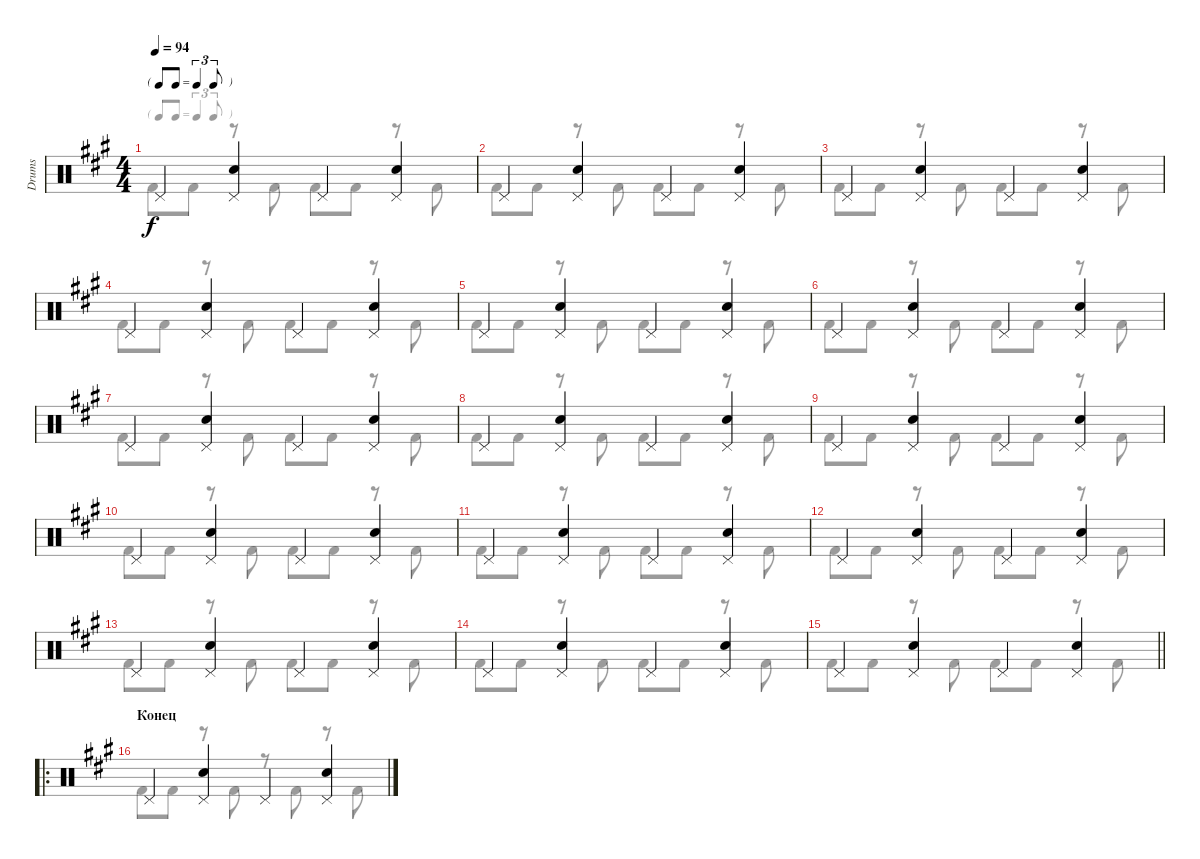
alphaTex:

\track ("Drums" "Drums") {instrument percussion}
\staff {score}
\articulation defaults
\voice
\ts (4 4)
\tf triplet8th
\tempo 94
\clef neutral
\ks f#minor "Pedal Hi-Hat (hit)".4{dy f}
("Pedal Hi-Hat (hit)" "Snare (hit) 2").4 "Pedal Hi-Hat (hit)".4 ("Pedal Hi-Hat (hit)" "Snare (hit) 2").4 |
"Pedal Hi-Hat (hit)".4 ("Pedal Hi-Hat (hit)" "Snare (hit) 2").4 "Pedal Hi-Hat (hit)".4 ("Pedal Hi-Hat (hit)" "Snare (hit) 2").4 |
"Pedal Hi-Hat (hit)".4 ("Pedal Hi-Hat (hit)" "Snare (hit) 2").4 "Pedal Hi-Hat (hit)".4 ("Pedal Hi-Hat (hit)" "Snare (hit) 2").4 |
"Pedal Hi-Hat (hit)".4 ("Pedal Hi-Hat (hit)" "Snare (hit) 2").4 "Pedal Hi-Hat (hit)".4 ("Pedal Hi-Hat (hit)" "Snare (hit) 2").4 |
"Pedal Hi-Hat (hit)".4 ("Pedal Hi-Hat (hit)" "Snare (hit) 2").4 "Pedal Hi-Hat (hit)".4 ("Pedal Hi-Hat (hit)" "Snare (hit) 2").4 |
"Pedal Hi-Hat (hit)".4 ("Pedal Hi-Hat (hit)" "Snare (hit) 2").4 "Pedal Hi-Hat (hit)".4 ("Pedal Hi-Hat (hit)" "Snare (hit) 2").4 |
"Pedal Hi-Hat (hit)".4 ("Pedal Hi-Hat (hit)" "Snare (hit) 2").4 "Pedal Hi-Hat (hit)".4 ("Pedal Hi-Hat (hit)" "Snare (hit) 2").4 |
"Pedal Hi-Hat (hit)".4 ("Pedal Hi-Hat (hit)" "Snare (hit) 2").4 "Pedal Hi-Hat (hit)".4 ("Pedal Hi-Hat (hit)" "Snare (hit) 2").4 |
"Pedal Hi-Hat (hit)".4 ("Pedal Hi-Hat (hit)" "Snare (hit) 2").4 "Pedal Hi-Hat (hit)".4 ("Pedal Hi-Hat (hit)" "Snare (hit) 2").4 |
"Pedal Hi-Hat (hit)".4 ("Pedal Hi-Hat (hit)" "Snare (hit) 2").4 "Pedal Hi-Hat (hit)".4 ("Pedal Hi-Hat (hit)" "Snare (hit) 2").4 |
"Pedal Hi-Hat (hit)".4 ("Pedal Hi-Hat (hit)" "Snare (hit) 2").4 "Pedal Hi-Hat (hit)".4 ("Pedal Hi-Hat (hit)" "Snare (hit) 2").4 |
"Pedal Hi-Hat (hit)".4 ("Pedal Hi-Hat (hit)" "Snare (hit) 2").4 "Pedal Hi-Hat (hit)".4 ("Pedal Hi-Hat (hit)" "Snare (hit) 2").4 |
"Pedal Hi-Hat (hit)".4 ("Pedal Hi-Hat (hit)" "Snare (hit) 2").4 "Pedal Hi-Hat (hit)".4 ("Pedal Hi-Hat (hit)" "Snare (hit) 2").4 |
"Pedal Hi-Hat (hit)".4 ("Pedal Hi-Hat (hit)" "Snare (hit) 2").4 "Pedal Hi-Hat (hit)".4 ("Pedal Hi-Hat (hit)" "Snare (hit) 2").4 |
\barLineRight lightlight "Pedal Hi-Hat (hit)".4
("Pedal Hi-Hat (hit)" "Snare (hit) 2").4 "Pedal Hi-Hat (hit)".4 ("Pedal Hi-Hat (hit)" "Snare (hit) 2").4 |
\ro
\section ("" "Конец")
"Pedal Hi-Hat (hit)".4 ("Pedal Hi-Hat (hit)" "Snare (hit) 2").4 "Pedal Hi-Hat (hit)".4 ("Pedal Hi-Hat (hit)" "Snare (hit) 2").4
\voice
\clef neutral
\ottava regular
\simile none
\ks f#minor "Kick (hit) 2".8{dy f} "Kick (hit) 2".8
r.8 "Kick (hit) 2".8 "Kick (hit) 2".8 "Kick (hit) 2".8 r.8 "Kick (hit) 2".8 |
"Kick (hit) 2".8 "Kick (hit) 2".8 r.8 "Kick (hit) 2".8 "Kick (hit) 2".8 "Kick (hit) 2".8 r.8 "Kick (hit) 2".8 |
"Kick (hit) 2".8 "Kick (hit) 2".8 r.8 "Kick (hit) 2".8 "Kick (hit) 2".8 "Kick (hit) 2".8 r.8 "Kick (hit) 2".8 |
"Kick (hit) 2".8 "Kick (hit) 2".8 r.8 "Kick (hit) 2".8 "Kick (hit) 2".8 "Kick (hit) 2".8 r.8 "Kick (hit) 2".8 |
"Kick (hit) 2".8 "Kick (hit) 2".8 r.8 "Kick (hit) 2".8 "Kick (hit) 2".8 "Kick (hit) 2".8 r.8 "Kick (hit) 2".8 |
"Kick (hit) 2".8 "Kick (hit) 2".8 r.8 "Kick (hit) 2".8 "Kick (hit) 2".8 "Kick (hit) 2".8 r.8 "Kick (hit) 2".8 |
"Kick (hit) 2".8 "Kick (hit) 2".8 r.8 "Kick (hit) 2".8 "Kick (hit) 2".8 "Kick (hit) 2".8 r.8 "Kick (hit) 2".8 |
"Kick (hit) 2".8 "Kick (hit) 2".8 r.8 "Kick (hit) 2".8 "Kick (hit) 2".8 "Kick (hit) 2".8 r.8 "Kick (hit) 2".8 |
"Kick (hit) 2".8 "Kick (hit) 2".8 r.8 "Kick (hit) 2".8 "Kick (hit) 2".8 "Kick (hit) 2".8 r.8 "Kick (hit) 2".8 |
"Kick (hit) 2".8 "Kick (hit) 2".8 r.8 "Kick (hit) 2".8 "Kick (hit) 2".8 "Kick (hit) 2".8 r.8 "Kick (hit) 2".8 |
"Kick (hit) 2".8 "Kick (hit) 2".8 r.8 "Kick (hit) 2".8 "Kick (hit) 2".8 "Kick (hit) 2".8 r.8 "Kick (hit) 2".8 |
"Kick (hit) 2".8 "Kick (hit) 2".8 r.8 "Kick (hit) 2".8 "Kick (hit) 2".8 "Kick (hit) 2".8 r.8 "Kick (hit) 2".8 |
"Kick (hit) 2".8 "Kick (hit) 2".8 r.8 "Kick (hit) 2".8 "Kick (hit) 2".8 "Kick (hit) 2".8 r.8 "Kick (hit) 2".8 |
"Kick (hit) 2".8 "Kick (hit) 2".8 r.8 "Kick (hit) 2".8 "Kick (hit) 2".8 "Kick (hit) 2".8 r.8 "Kick (hit) 2".8 |
\barLineRight lightlight "Kick (hit) 2".8 "Kick (hit) 2".8
r.8 "Kick (hit) 2".8 "Kick (hit) 2".8 "Kick (hit) 2".8 r.8 "Kick (hit) 2".8 |
"Kick (hit) 2".8 "Kick (hit) 2".8 r.8 "Kick (hit) 2".8 r.8 "Kick (hit) 2".8 r.8 "Kick (hit) 2".8
